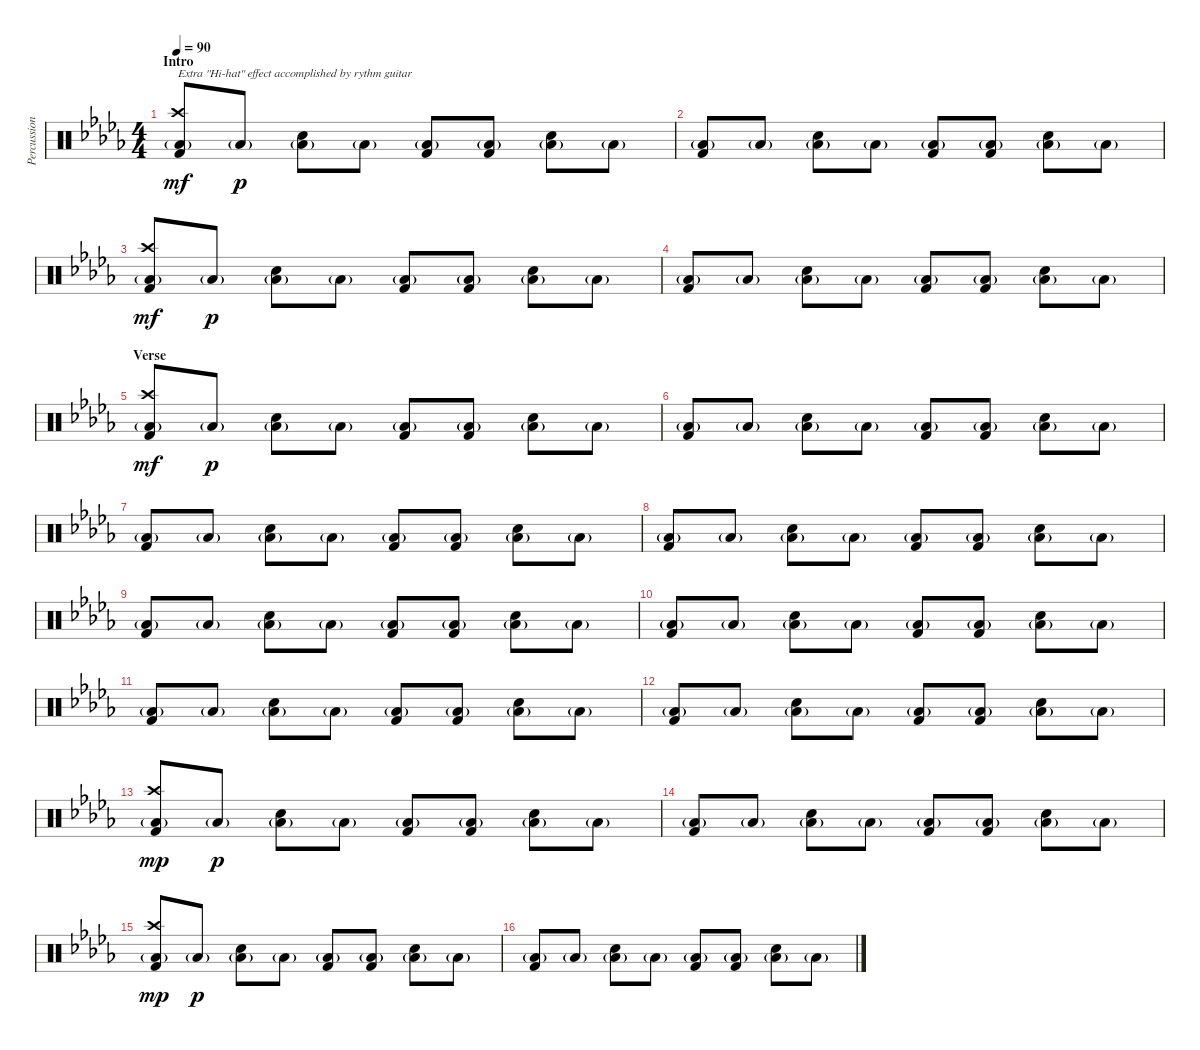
\track ("Percussion" "Percussion") {instrument percussion}
\staff {score}
\articulation defaults
\ts (4 4)
\section ("" "Intro")
\tempo 90
\clef neutral
\ks db
("Low Floor Tom (hit)"{g} "Crash high (hit)" "Kick (hit) 2").8{txt "Extra \"Hi-hat\" effect accomplished by rythm guitar" dy mf} "Low Floor Tom (hit)"{g}.8{dy p} ("Low Floor Tom (hit)"{g} "Snare (hit) 2").8 "Low Floor Tom (hit)"{g}.8 ("Low Floor Tom (hit)"{g} "Kick (hit) 2").8 ("Low Floor Tom (hit)"{g} "Kick (hit) 2").8 ("Low Floor Tom (hit)"{g} "Snare (hit) 2").8 "Low Floor Tom (hit)"{g}.8 |
("Low Floor Tom (hit)"{g} "Kick (hit) 2").8 "Low Floor Tom (hit)"{g}.8 ("Low Floor Tom (hit)"{g} "Snare (hit) 2").8 "Low Floor Tom (hit)"{g}.8 ("Low Floor Tom (hit)"{g} "Kick (hit) 2").8 ("Low Floor Tom (hit)"{g} "Kick (hit) 2").8 ("Low Floor Tom (hit)"{g} "Snare (hit) 2").8 "Low Floor Tom (hit)"{g}.8 |
("Low Floor Tom (hit)"{g} "Crash high (hit)" "Kick (hit) 2").8{dy mf} "Low Floor Tom (hit)"{g}.8{dy p} ("Low Floor Tom (hit)"{g} "Snare (hit) 2").8 "Low Floor Tom (hit)"{g}.8 ("Low Floor Tom (hit)"{g} "Kick (hit) 2").8 ("Low Floor Tom (hit)"{g} "Kick (hit) 2").8 ("Low Floor Tom (hit)"{g} "Snare (hit) 2").8 "Low Floor Tom (hit)"{g}.8 |
("Low Floor Tom (hit)"{g} "Kick (hit) 2").8 "Low Floor Tom (hit)"{g}.8 ("Low Floor Tom (hit)"{g} "Snare (hit) 2").8 "Low Floor Tom (hit)"{g}.8 ("Low Floor Tom (hit)"{g} "Kick (hit) 2").8 ("Low Floor Tom (hit)"{g} "Kick (hit) 2").8 ("Low Floor Tom (hit)"{g} "Snare (hit) 2").8 "Low Floor Tom (hit)"{g}.8 |
\section ("" "Verse")
("Low Floor Tom (hit)"{g} "Crash high (hit)" "Kick (hit) 2").8{dy mf} "Low Floor Tom (hit)"{g}.8{dy p} ("Low Floor Tom (hit)"{g} "Snare (hit) 2").8 "Low Floor Tom (hit)"{g}.8 ("Low Floor Tom (hit)"{g} "Kick (hit) 2").8 ("Low Floor Tom (hit)"{g} "Kick (hit) 2").8 ("Low Floor Tom (hit)"{g} "Snare (hit) 2").8 "Low Floor Tom (hit)"{g}.8 |
("Low Floor Tom (hit)"{g} "Kick (hit) 2").8 "Low Floor Tom (hit)"{g}.8 ("Low Floor Tom (hit)"{g} "Snare (hit) 2").8 "Low Floor Tom (hit)"{g}.8 ("Low Floor Tom (hit)"{g} "Kick (hit) 2").8 ("Low Floor Tom (hit)"{g} "Kick (hit) 2").8 ("Low Floor Tom (hit)"{g} "Snare (hit) 2").8 "Low Floor Tom (hit)"{g}.8 |
("Low Floor Tom (hit)"{g} "Kick (hit) 2").8 "Low Floor Tom (hit)"{g}.8 ("Low Floor Tom (hit)"{g} "Snare (hit) 2").8 "Low Floor Tom (hit)"{g}.8 ("Low Floor Tom (hit)"{g} "Kick (hit) 2").8 ("Low Floor Tom (hit)"{g} "Kick (hit) 2").8 ("Low Floor Tom (hit)"{g} "Snare (hit) 2").8 "Low Floor Tom (hit)"{g}.8 |
("Low Floor Tom (hit)"{g} "Kick (hit) 2").8 "Low Floor Tom (hit)"{g}.8 ("Low Floor Tom (hit)"{g} "Snare (hit) 2").8 "Low Floor Tom (hit)"{g}.8 ("Low Floor Tom (hit)"{g} "Kick (hit) 2").8 ("Low Floor Tom (hit)"{g} "Kick (hit) 2").8 ("Low Floor Tom (hit)"{g} "Snare (hit) 2").8 "Low Floor Tom (hit)"{g}.8 |
("Low Floor Tom (hit)"{g} "Kick (hit) 2").8 "Low Floor Tom (hit)"{g}.8 ("Low Floor Tom (hit)"{g} "Snare (hit) 2").8 "Low Floor Tom (hit)"{g}.8 ("Low Floor Tom (hit)"{g} "Kick (hit) 2").8 ("Low Floor Tom (hit)"{g} "Kick (hit) 2").8 ("Low Floor Tom (hit)"{g} "Snare (hit) 2").8 "Low Floor Tom (hit)"{g}.8 |
("Low Floor Tom (hit)"{g} "Kick (hit) 2").8 "Low Floor Tom (hit)"{g}.8 ("Low Floor Tom (hit)"{g} "Snare (hit) 2").8 "Low Floor Tom (hit)"{g}.8 ("Low Floor Tom (hit)"{g} "Kick (hit) 2").8 ("Low Floor Tom (hit)"{g} "Kick (hit) 2").8 ("Low Floor Tom (hit)"{g} "Snare (hit) 2").8 "Low Floor Tom (hit)"{g}.8 |
("Low Floor Tom (hit)"{g} "Kick (hit) 2").8 "Low Floor Tom (hit)"{g}.8 ("Low Floor Tom (hit)"{g} "Snare (hit) 2").8 "Low Floor Tom (hit)"{g}.8 ("Low Floor Tom (hit)"{g} "Kick (hit) 2").8 ("Low Floor Tom (hit)"{g} "Kick (hit) 2").8 ("Low Floor Tom (hit)"{g} "Snare (hit) 2").8 "Low Floor Tom (hit)"{g}.8 |
("Low Floor Tom (hit)"{g} "Kick (hit) 2").8 "Low Floor Tom (hit)"{g}.8 ("Low Floor Tom (hit)"{g} "Snare (hit) 2").8 "Low Floor Tom (hit)"{g}.8 ("Low Floor Tom (hit)"{g} "Kick (hit) 2").8 ("Low Floor Tom (hit)"{g} "Kick (hit) 2").8 ("Low Floor Tom (hit)"{g} "Snare (hit) 2").8 "Low Floor Tom (hit)"{g}.8 |
("Low Floor Tom (hit)"{g} "Crash high (hit)" "Kick (hit) 2").8{dy mp} "Low Floor Tom (hit)"{g}.8{dy p} ("Low Floor Tom (hit)"{g} "Snare (hit) 2").8 "Low Floor Tom (hit)"{g}.8 ("Low Floor Tom (hit)"{g} "Kick (hit) 2").8 ("Low Floor Tom (hit)"{g} "Kick (hit) 2").8 ("Low Floor Tom (hit)"{g} "Snare (hit) 2").8 "Low Floor Tom (hit)"{g}.8 |
("Low Floor Tom (hit)"{g} "Kick (hit) 2").8 "Low Floor Tom (hit)"{g}.8 ("Low Floor Tom (hit)"{g} "Snare (hit) 2").8 "Low Floor Tom (hit)"{g}.8 ("Low Floor Tom (hit)"{g} "Kick (hit) 2").8 ("Low Floor Tom (hit)"{g} "Kick (hit) 2").8 ("Low Floor Tom (hit)"{g} "Snare (hit) 2").8 "Low Floor Tom (hit)"{g}.8 |
("Low Floor Tom (hit)"{g} "Crash high (hit)" "Kick (hit) 2").8{dy mp} "Low Floor Tom (hit)"{g}.8{dy p} ("Low Floor Tom (hit)"{g} "Snare (hit) 2").8 "Low Floor Tom (hit)"{g}.8 ("Low Floor Tom (hit)"{g} "Kick (hit) 2").8 ("Low Floor Tom (hit)"{g} "Kick (hit) 2").8 ("Low Floor Tom (hit)"{g} "Snare (hit) 2").8 "Low Floor Tom (hit)"{g}.8 |
("Low Floor Tom (hit)"{g} "Kick (hit) 2").8 "Low Floor Tom (hit)"{g}.8 ("Low Floor Tom (hit)"{g} "Snare (hit) 2").8 "Low Floor Tom (hit)"{g}.8 ("Low Floor Tom (hit)"{g} "Kick (hit) 2").8 ("Low Floor Tom (hit)"{g} "Kick (hit) 2").8 ("Low Floor Tom (hit)"{g} "Snare (hit) 2").8 "Low Floor Tom (hit)"{g}.8
